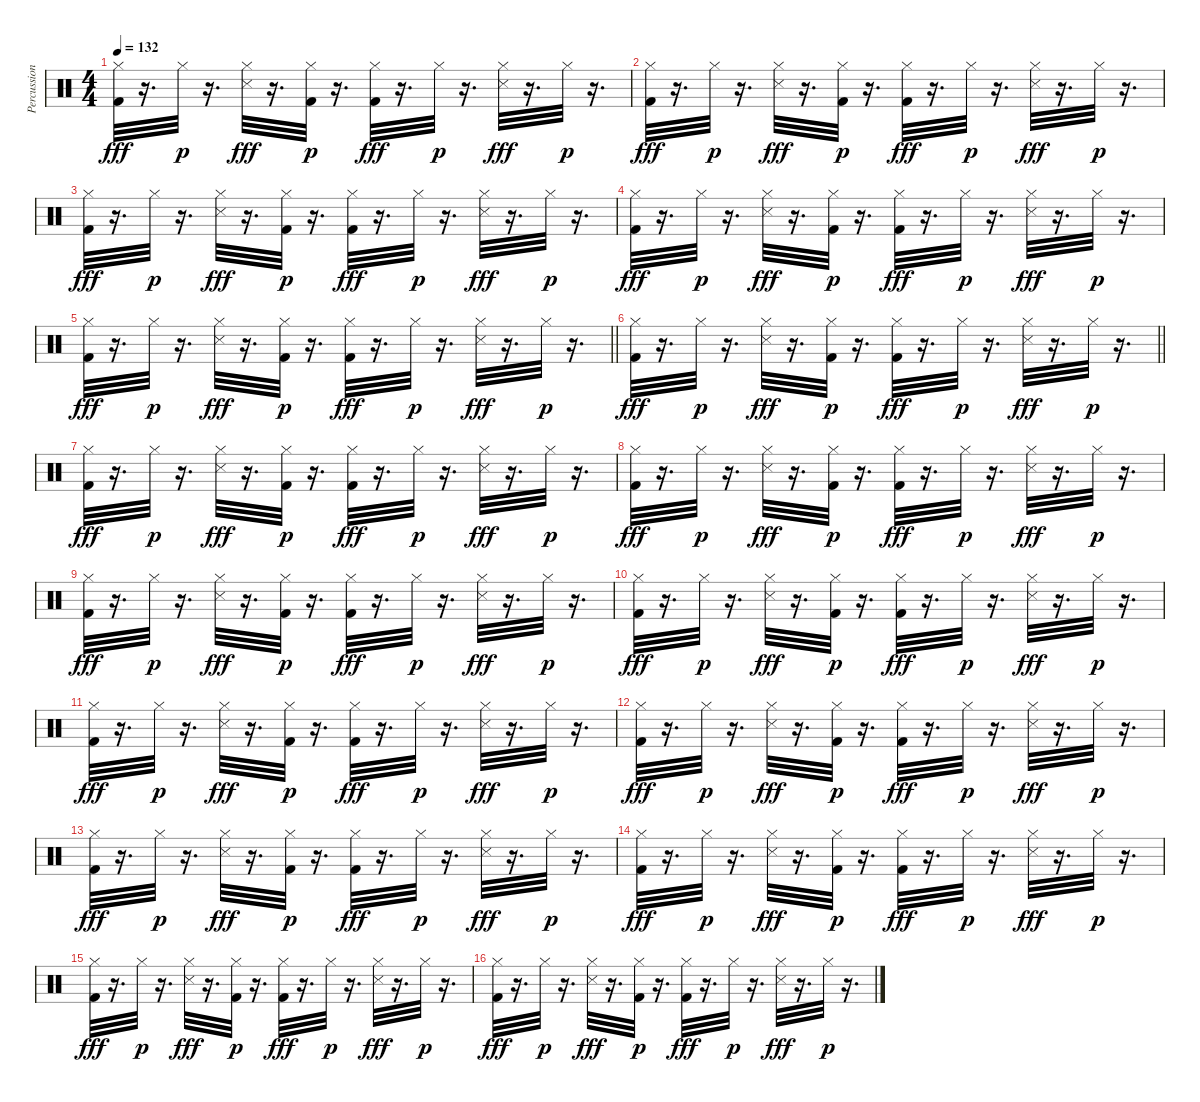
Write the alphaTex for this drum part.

\track ("Percussion" "Percussion") {instrument percussion}
\staff {score}
\articulation defaults
\ts (4 4)
\tempo 132
\clef neutral
\ks c
("Kick (hit) 2" "Hi-Hat (closed)").32{dy fff} r.16{d} "Hi-Hat (closed)".32{dy p} r.16{d} ("Hi-Hat (closed)" "Snare (side stick) 3").32{dy fff} r.16{d} ("Kick (hit) 2" "Hi-Hat (closed)").32{dy p} r.16{d} ("Kick (hit) 2" "Hi-Hat (closed)").32{dy fff} r.16{d} "Hi-Hat (closed)".32{dy p} r.16{d} ("Snare (side stick) 3" "Hi-Hat (closed)").32{dy fff} r.16{d} "Hi-Hat (closed)".32{dy p} r.16{d} |
("Kick (hit) 2" "Hi-Hat (closed)").32{dy fff} r.16{d} "Hi-Hat (closed)".32{dy p} r.16{d} ("Snare (side stick) 3" "Hi-Hat (closed)").32{dy fff} r.16{d} ("Kick (hit) 2" "Hi-Hat (closed)").32{dy p} r.16{d} ("Kick (hit) 2" "Hi-Hat (closed)").32{dy fff} r.16{d} "Hi-Hat (closed)".32{dy p} r.16{d} ("Hi-Hat (closed)" "Snare (side stick) 3").32{dy fff} r.16{d} "Hi-Hat (closed)".32{dy p} r.16{d} |
("Kick (hit) 2" "Hi-Hat (closed)").32{dy fff} r.16{d} "Hi-Hat (closed)".32{dy p} r.16{d} ("Hi-Hat (closed)" "Snare (side stick) 3").32{dy fff} r.16{d} ("Kick (hit) 2" "Hi-Hat (closed)").32{dy p} r.16{d} ("Kick (hit) 2" "Hi-Hat (closed)").32{dy fff} r.16{d} "Hi-Hat (closed)".32{dy p} r.16{d} ("Snare (side stick) 3" "Hi-Hat (closed)").32{dy fff} r.16{d} "Hi-Hat (closed)".32{dy p} r.16{d} |
("Kick (hit) 2" "Hi-Hat (closed)").32{dy fff} r.16{d} "Hi-Hat (closed)".32{dy p} r.16{d} ("Snare (side stick) 3" "Hi-Hat (closed)").32{dy fff} r.16{d} ("Kick (hit) 2" "Hi-Hat (closed)").32{dy p} r.16{d} ("Kick (hit) 2" "Hi-Hat (closed)").32{dy fff} r.16{d} "Hi-Hat (closed)".32{dy p} r.16{d} ("Hi-Hat (closed)" "Snare (side stick) 3").32{dy fff} r.16{d} "Hi-Hat (closed)".32{dy p} r.16{d} |
\barLineRight lightlight
("Kick (hit) 2" "Hi-Hat (closed)").32{dy fff} r.16{d} "Hi-Hat (closed)".32{dy p} r.16{d} ("Hi-Hat (closed)" "Snare (side stick) 3").32{dy fff} r.16{d} ("Kick (hit) 2" "Hi-Hat (closed)").32{dy p} r.16{d} ("Kick (hit) 2" "Hi-Hat (closed)").32{dy fff} r.16{d} "Hi-Hat (closed)".32{dy p} r.16{d} ("Snare (side stick) 3" "Hi-Hat (closed)").32{dy fff} r.16{d} "Hi-Hat (closed)".32{dy p} r.16{d} |
\barLineRight lightlight
("Kick (hit) 2" "Hi-Hat (closed)").32{dy fff} r.16{d} "Hi-Hat (closed)".32{dy p} r.16{d} ("Snare (side stick) 3" "Hi-Hat (closed)").32{dy fff} r.16{d} ("Kick (hit) 2" "Hi-Hat (closed)").32{dy p} r.16{d} ("Kick (hit) 2" "Hi-Hat (closed)").32{dy fff} r.16{d} "Hi-Hat (closed)".32{dy p} r.16{d} ("Hi-Hat (closed)" "Snare (side stick) 3").32{dy fff} r.16{d} "Hi-Hat (closed)".32{dy p} r.16{d} |
("Kick (hit) 2" "Hi-Hat (closed)").32{dy fff} r.16{d} "Hi-Hat (closed)".32{dy p} r.16{d} ("Snare (side stick) 3" "Hi-Hat (closed)").32{dy fff} r.16{d} ("Kick (hit) 2" "Hi-Hat (closed)").32{dy p} r.16{d} ("Kick (hit) 2" "Hi-Hat (closed)").32{dy fff} r.16{d} "Hi-Hat (closed)".32{dy p} r.16{d} ("Snare (side stick) 3" "Hi-Hat (closed)").32{dy fff} r.16{d} "Hi-Hat (closed)".32{dy p} r.16{d} |
("Kick (hit) 2" "Hi-Hat (closed)").32{dy fff} r.16{d} "Hi-Hat (closed)".32{dy p} r.16{d} ("Snare (side stick) 3" "Hi-Hat (closed)").32{dy fff} r.16{d} ("Kick (hit) 2" "Hi-Hat (closed)").32{dy p} r.16{d} ("Kick (hit) 2" "Hi-Hat (closed)").32{dy fff} r.16{d} "Hi-Hat (closed)".32{dy p} r.16{d} ("Snare (side stick) 3" "Hi-Hat (closed)").32{dy fff} r.16{d} "Hi-Hat (closed)".32{dy p} r.16{d} |
("Kick (hit) 2" "Hi-Hat (closed)").32{dy fff} r.16{d} "Hi-Hat (closed)".32{dy p} r.16{d} ("Hi-Hat (closed)" "Snare (side stick) 3").32{dy fff} r.16{d} ("Kick (hit) 2" "Hi-Hat (closed)").32{dy p} r.16{d} ("Kick (hit) 2" "Hi-Hat (closed)").32{dy fff} r.16{d} "Hi-Hat (closed)".32{dy p} r.16{d} ("Snare (side stick) 3" "Hi-Hat (closed)").32{dy fff} r.16{d} "Hi-Hat (closed)".32{dy p} r.16{d} |
("Kick (hit) 2" "Hi-Hat (closed)").32{dy fff} r.16{d} "Hi-Hat (closed)".32{dy p} r.16{d} ("Hi-Hat (closed)" "Snare (side stick) 3").32{dy fff} r.16{d} ("Kick (hit) 2" "Hi-Hat (closed)").32{dy p} r.16{d} ("Kick (hit) 2" "Hi-Hat (closed)").32{dy fff} r.16{d} "Hi-Hat (closed)".32{dy p} r.16{d} ("Snare (side stick) 3" "Hi-Hat (closed)").32{dy fff} r.16{d} "Hi-Hat (closed)".32{dy p} r.16{d} |
("Kick (hit) 2" "Hi-Hat (closed)").32{dy fff} r.16{d} "Hi-Hat (closed)".32{dy p} r.16{d} ("Snare (side stick) 3" "Hi-Hat (closed)").32{dy fff} r.16{d} ("Kick (hit) 2" "Hi-Hat (closed)").32{dy p} r.16{d} ("Kick (hit) 2" "Hi-Hat (closed)").32{dy fff} r.16{d} "Hi-Hat (closed)".32{dy p} r.16{d} ("Snare (side stick) 3" "Hi-Hat (closed)").32{dy fff} r.16{d} "Hi-Hat (closed)".32{dy p} r.16{d} |
("Kick (hit) 2" "Hi-Hat (closed)").32{dy fff} r.16{d} "Hi-Hat (closed)".32{dy p} r.16{d} ("Snare (side stick) 3" "Hi-Hat (closed)").32{dy fff} r.16{d} ("Kick (hit) 2" "Hi-Hat (closed)").32{dy p} r.16{d} ("Kick (hit) 2" "Hi-Hat (closed)").32{dy fff} r.16{d} "Hi-Hat (closed)".32{dy p} r.16{d} ("Hi-Hat (closed)" "Snare (side stick) 3").32{dy fff} r.16{d} "Hi-Hat (closed)".32{dy p} r.16{d} |
("Kick (hit) 2" "Hi-Hat (closed)").32{dy fff} r.16{d} "Hi-Hat (closed)".32{dy p} r.16{d} ("Snare (side stick) 3" "Hi-Hat (closed)").32{dy fff} r.16{d} ("Kick (hit) 2" "Hi-Hat (closed)").32{dy p} r.16{d} ("Kick (hit) 2" "Hi-Hat (closed)").32{dy fff} r.16{d} "Hi-Hat (closed)".32{dy p} r.16{d} ("Hi-Hat (closed)" "Snare (side stick) 3").32{dy fff} r.16{d} "Hi-Hat (closed)".32{dy p} r.16{d} |
("Kick (hit) 2" "Hi-Hat (closed)").32{dy fff} r.16{d} "Hi-Hat (closed)".32{dy p} r.16{d} ("Snare (side stick) 3" "Hi-Hat (closed)").32{dy fff} r.16{d} ("Kick (hit) 2" "Hi-Hat (closed)").32{dy p} r.16{d} ("Kick (hit) 2" "Hi-Hat (closed)").32{dy fff} r.16{d} "Hi-Hat (closed)".32{dy p} r.16{d} ("Hi-Hat (closed)" "Snare (side stick) 3").32{dy fff} r.16{d} "Hi-Hat (closed)".32{dy p} r.16{d} |
("Kick (hit) 2" "Hi-Hat (closed)").32{dy fff} r.16{d} "Hi-Hat (closed)".32{dy p} r.16{d} ("Snare (side stick) 3" "Hi-Hat (closed)").32{dy fff} r.16{d} ("Kick (hit) 2" "Hi-Hat (closed)").32{dy p} r.16{d} ("Kick (hit) 2" "Hi-Hat (closed)").32{dy fff} r.16{d} "Hi-Hat (closed)".32{dy p} r.16{d} ("Snare (side stick) 3" "Hi-Hat (closed)").32{dy fff} r.16{d} "Hi-Hat (closed)".32{dy p} r.16{d} |
("Kick (hit) 2" "Hi-Hat (closed)").32{dy fff} r.16{d} "Hi-Hat (closed)".32{dy p} r.16{d} ("Snare (side stick) 3" "Hi-Hat (closed)").32{dy fff} r.16{d} ("Kick (hit) 2" "Hi-Hat (closed)").32{dy p} r.16{d} ("Kick (hit) 2" "Hi-Hat (closed)").32{dy fff} r.16{d} "Hi-Hat (closed)".32{dy p} r.16{d} ("Hi-Hat (closed)" "Snare (side stick) 3").32{dy fff} r.16{d} "Hi-Hat (closed)".32{dy p} r.16{d}
